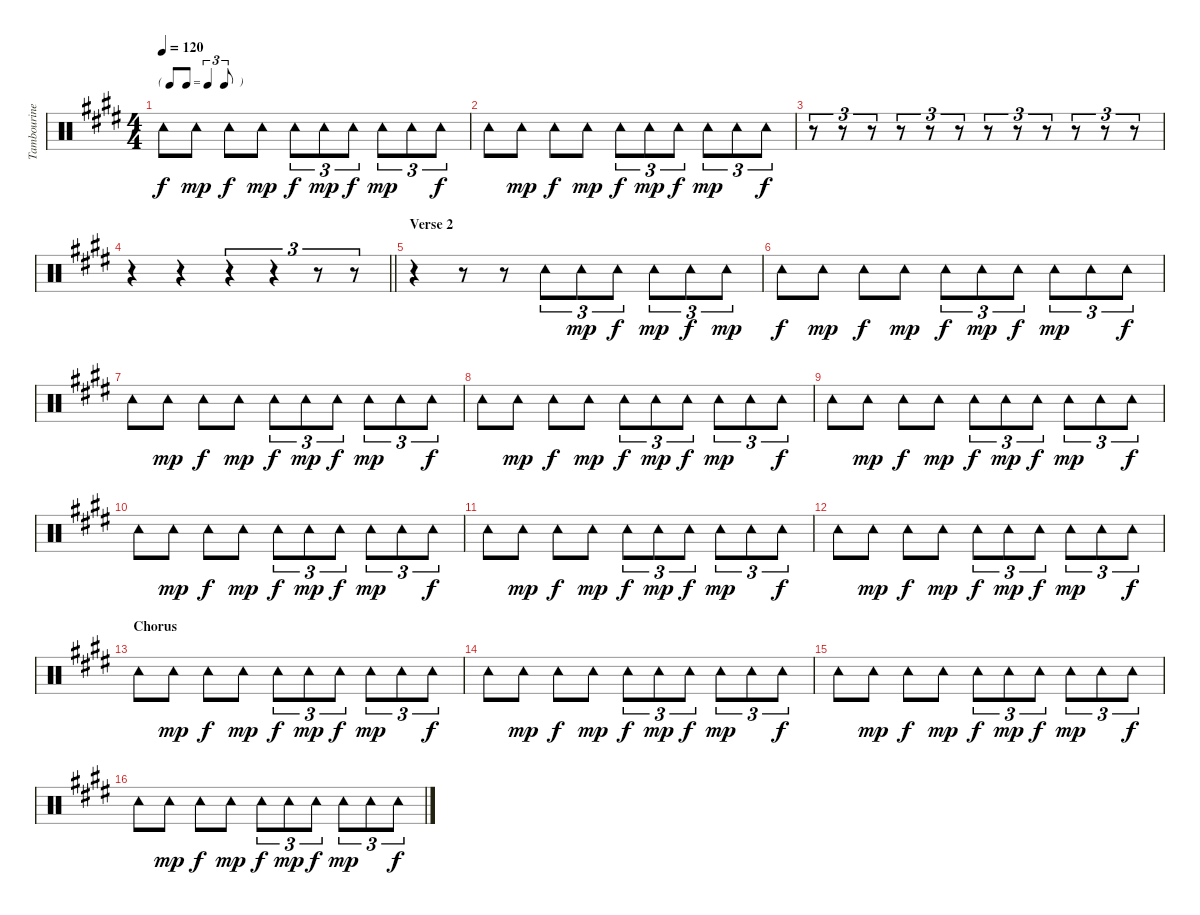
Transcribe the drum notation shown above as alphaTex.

\track ("Tambourine" "Tambourine") {instrument percussion}
\staff {score}
\articulation defaults
\ts (4 4)
\tf triplet8th
\tempo 120
\clef neutral
\ks e "Tambourine (hit)".8{dy f} "Tambourine (hit)".8{dy mp} "Tambourine (hit)".8{dy f} "Tambourine (hit)".8{dy mp} "Tambourine (hit)".8{tu (3 2) dy f} "Tambourine (hit)".8{tu (3 2) dy mp} "Tambourine (hit)".8{tu (3 2) dy f} "Tambourine (hit)".8{tu (3 2) dy mp} "Tambourine (hit)".8{tu (3 2)} "Tambourine (hit)".8{tu (3 2) dy f}
|
"Tambourine (hit)".8 "Tambourine (hit)".8{dy mp} "Tambourine (hit)".8{dy f} "Tambourine (hit)".8{dy mp} "Tambourine (hit)".8{tu (3 2) dy f} "Tambourine (hit)".8{tu (3 2) dy mp} "Tambourine (hit)".8{tu (3 2) dy f} "Tambourine (hit)".8{tu (3 2) dy mp} "Tambourine (hit)".8{tu (3 2)} "Tambourine (hit)".8{tu (3 2) dy f} |
r.8{tu (3 2)} r.8{tu (3 2)} r.8{tu (3 2)} r.8{tu (3 2)} r.8{tu (3 2)} r.8{tu (3 2)} r.8{tu (3 2)} r.8{tu (3 2)} r.8{tu (3 2)} r.8{tu (3 2)} r.8{tu (3 2)} r.8{tu (3 2)} |
\barLineRight lightlight
r.4 r.4 r.4{tu (3 2)} r.4{tu (3 2)} r.8{tu (3 2)} r.8{tu (3 2)} |
\section ("" "Verse 2")
r.4 r.8 r.8 "Tambourine (hit)".8{tu (3 2)} "Tambourine (hit)".8{tu (3 2) dy mp} "Tambourine (hit)".8{tu (3 2) dy f} "Tambourine (hit)".8{tu (3 2) dy mp} "Tambourine (hit)".8{tu (3 2) dy f} "Tambourine (hit)".8{tu (3 2) dy mp} |
"Tambourine (hit)".8{dy f} "Tambourine (hit)".8{dy mp} "Tambourine (hit)".8{dy f} "Tambourine (hit)".8{dy mp} "Tambourine (hit)".8{tu (3 2) dy f} "Tambourine (hit)".8{tu (3 2) dy mp} "Tambourine (hit)".8{tu (3 2) dy f} "Tambourine (hit)".8{tu (3 2) dy mp} "Tambourine (hit)".8{tu (3 2)} "Tambourine (hit)".8{tu (3 2) dy f} |
"Tambourine (hit)".8 "Tambourine (hit)".8{dy mp} "Tambourine (hit)".8{dy f} "Tambourine (hit)".8{dy mp} "Tambourine (hit)".8{tu (3 2) dy f} "Tambourine (hit)".8{tu (3 2) dy mp} "Tambourine (hit)".8{tu (3 2) dy f} "Tambourine (hit)".8{tu (3 2) dy mp} "Tambourine (hit)".8{tu (3 2)} "Tambourine (hit)".8{tu (3 2) dy f} |
"Tambourine (hit)".8 "Tambourine (hit)".8{dy mp} "Tambourine (hit)".8{dy f} "Tambourine (hit)".8{dy mp} "Tambourine (hit)".8{tu (3 2) dy f} "Tambourine (hit)".8{tu (3 2) dy mp} "Tambourine (hit)".8{tu (3 2) dy f} "Tambourine (hit)".8{tu (3 2) dy mp} "Tambourine (hit)".8{tu (3 2)} "Tambourine (hit)".8{tu (3 2) dy f} |
"Tambourine (hit)".8 "Tambourine (hit)".8{dy mp} "Tambourine (hit)".8{dy f} "Tambourine (hit)".8{dy mp} "Tambourine (hit)".8{tu (3 2) dy f} "Tambourine (hit)".8{tu (3 2) dy mp} "Tambourine (hit)".8{tu (3 2) dy f} "Tambourine (hit)".8{tu (3 2) dy mp} "Tambourine (hit)".8{tu (3 2)} "Tambourine (hit)".8{tu (3 2) dy f} |
"Tambourine (hit)".8 "Tambourine (hit)".8{dy mp} "Tambourine (hit)".8{dy f} "Tambourine (hit)".8{dy mp} "Tambourine (hit)".8{tu (3 2) dy f} "Tambourine (hit)".8{tu (3 2) dy mp} "Tambourine (hit)".8{tu (3 2) dy f} "Tambourine (hit)".8{tu (3 2) dy mp} "Tambourine (hit)".8{tu (3 2)} "Tambourine (hit)".8{tu (3 2) dy f} |
"Tambourine (hit)".8 "Tambourine (hit)".8{dy mp} "Tambourine (hit)".8{dy f} "Tambourine (hit)".8{dy mp} "Tambourine (hit)".8{tu (3 2) dy f} "Tambourine (hit)".8{tu (3 2) dy mp} "Tambourine (hit)".8{tu (3 2) dy f} "Tambourine (hit)".8{tu (3 2) dy mp} "Tambourine (hit)".8{tu (3 2)} "Tambourine (hit)".8{tu (3 2) dy f} |
"Tambourine (hit)".8 "Tambourine (hit)".8{dy mp} "Tambourine (hit)".8{dy f} "Tambourine (hit)".8{dy mp} "Tambourine (hit)".8{tu (3 2) dy f} "Tambourine (hit)".8{tu (3 2) dy mp} "Tambourine (hit)".8{tu (3 2) dy f} "Tambourine (hit)".8{tu (3 2) dy mp} "Tambourine (hit)".8{tu (3 2)} "Tambourine (hit)".8{tu (3 2) dy f} |
\section ("" "Chorus")
"Tambourine (hit)".8 "Tambourine (hit)".8{dy mp} "Tambourine (hit)".8{dy f} "Tambourine (hit)".8{dy mp} "Tambourine (hit)".8{tu (3 2) dy f} "Tambourine (hit)".8{tu (3 2) dy mp} "Tambourine (hit)".8{tu (3 2) dy f} "Tambourine (hit)".8{tu (3 2) dy mp} "Tambourine (hit)".8{tu (3 2)} "Tambourine (hit)".8{tu (3 2) dy f} |
"Tambourine (hit)".8 "Tambourine (hit)".8{dy mp} "Tambourine (hit)".8{dy f} "Tambourine (hit)".8{dy mp} "Tambourine (hit)".8{tu (3 2) dy f} "Tambourine (hit)".8{tu (3 2) dy mp} "Tambourine (hit)".8{tu (3 2) dy f} "Tambourine (hit)".8{tu (3 2) dy mp} "Tambourine (hit)".8{tu (3 2)} "Tambourine (hit)".8{tu (3 2) dy f} |
"Tambourine (hit)".8 "Tambourine (hit)".8{dy mp} "Tambourine (hit)".8{dy f} "Tambourine (hit)".8{dy mp} "Tambourine (hit)".8{tu (3 2) dy f} "Tambourine (hit)".8{tu (3 2) dy mp} "Tambourine (hit)".8{tu (3 2) dy f} "Tambourine (hit)".8{tu (3 2) dy mp} "Tambourine (hit)".8{tu (3 2)} "Tambourine (hit)".8{tu (3 2) dy f} |
"Tambourine (hit)".8 "Tambourine (hit)".8{dy mp} "Tambourine (hit)".8{dy f} "Tambourine (hit)".8{dy mp} "Tambourine (hit)".8{tu (3 2) dy f} "Tambourine (hit)".8{tu (3 2) dy mp} "Tambourine (hit)".8{tu (3 2) dy f} "Tambourine (hit)".8{tu (3 2) dy mp} "Tambourine (hit)".8{tu (3 2)} "Tambourine (hit)".8{tu (3 2) dy f}
